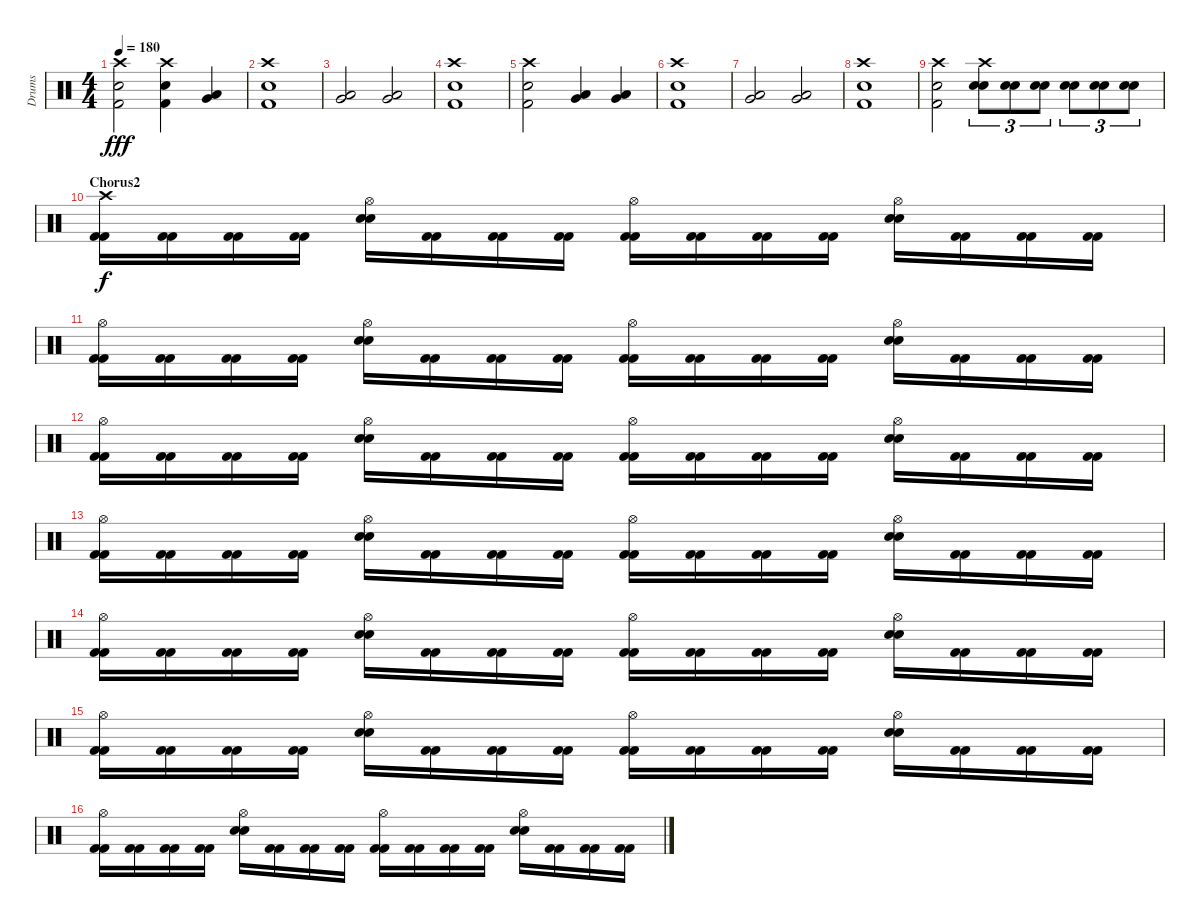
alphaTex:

\track ("Drums" "Drums") {instrument percussion}
\staff {score}
\articulation defaults
\ts (4 4)
\tempo 180
\clef neutral
\ks c
("Crash high (hit)" "Snare (hit) 2" "Kick (hit) 2").2{dy fff} ("Crash high (hit)" "Snare (hit) 2" "Kick (hit) 2").4 ("Low Tom (hit)" "Very Low Tom (hit)").4 |
("Crash high (hit)" "Snare (hit) 2" "Kick (hit) 2").1 |
("Low Tom (hit)" "Very Low Tom (hit)").2 ("Low Tom (hit)" "Very Low Tom (hit)").2 |
("Crash high (hit)" "Snare (hit) 2" "Kick (hit) 2").1 |
("Crash high (hit)" "Snare (hit) 2" "Kick (hit) 2").2 ("Low Tom (hit)" "Very Low Tom (hit)").4 ("Low Tom (hit)" "Very Low Tom (hit)").4 |
("Crash high (hit)" "Snare (hit) 2" "Kick (hit) 2").1 |
("Low Tom (hit)" "Very Low Tom (hit)").2 ("Low Tom (hit)" "Very Low Tom (hit)").2 |
("Crash high (hit)" "Snare (hit) 2" "Kick (hit) 2").1 |
("Crash high (hit)" "Snare (hit) 2" "Kick (hit) 2").2 ("Crash high (hit)" "Snare (hit) 2" "Snare (hit) 2").8{tu (3 2)} ("Snare (hit) 2" "Snare (hit) 2").8{tu (3 2)} ("Snare (hit) 2" "Snare (hit) 2").8{tu (3 2)} ("Snare (hit) 2" "Snare (hit) 2").8{tu (3 2)} ("Snare (hit) 2" "Snare (hit) 2").8{tu (3 2)} ("Snare (hit) 2" "Snare (hit) 2").8{tu (3 2)} |
\section ("" "Chorus2")
("Crash high (hit)" "Kick (hit) 2" "Kick (hit) 2").16{dy f} ("Kick (hit) 2" "Kick (hit) 2").16 ("Kick (hit) 2" "Kick (hit) 2").16 ("Kick (hit) 2" "Kick (hit) 2").16 ("Hi-Hat (open)" "Snare (hit) 2" "Snare (hit) 2").16 ("Kick (hit) 2" "Kick (hit) 2").16 ("Kick (hit) 2" "Kick (hit) 2").16 ("Kick (hit) 2" "Kick (hit) 2").16 ("Hi-Hat (open)" "Kick (hit) 2" "Kick (hit) 2").16 ("Kick (hit) 2" "Kick (hit) 2").16 ("Kick (hit) 2" "Kick (hit) 2").16 ("Kick (hit) 2" "Kick (hit) 2").16 ("Hi-Hat (open)" "Snare (hit) 2" "Snare (hit) 2").16 ("Kick (hit) 2" "Kick (hit) 2").16 ("Kick (hit) 2" "Kick (hit) 2").16 ("Kick (hit) 2" "Kick (hit) 2").16 |
("Hi-Hat (open)" "Kick (hit) 2" "Kick (hit) 2").16 ("Kick (hit) 2" "Kick (hit) 2").16 ("Kick (hit) 2" "Kick (hit) 2").16 ("Kick (hit) 2" "Kick (hit) 2").16 ("Hi-Hat (open)" "Snare (hit) 2" "Snare (hit) 2").16 ("Kick (hit) 2" "Kick (hit) 2").16 ("Kick (hit) 2" "Kick (hit) 2").16 ("Kick (hit) 2" "Kick (hit) 2").16 ("Hi-Hat (open)" "Kick (hit) 2" "Kick (hit) 2").16 ("Kick (hit) 2" "Kick (hit) 2").16 ("Kick (hit) 2" "Kick (hit) 2").16 ("Kick (hit) 2" "Kick (hit) 2").16 ("Hi-Hat (open)" "Snare (hit) 2" "Snare (hit) 2").16 ("Kick (hit) 2" "Kick (hit) 2").16 ("Kick (hit) 2" "Kick (hit) 2").16 ("Kick (hit) 2" "Kick (hit) 2").16 |
("Hi-Hat (open)" "Kick (hit) 2" "Kick (hit) 2").16 ("Kick (hit) 2" "Kick (hit) 2").16 ("Kick (hit) 2" "Kick (hit) 2").16 ("Kick (hit) 2" "Kick (hit) 2").16 ("Hi-Hat (open)" "Snare (hit) 2" "Snare (hit) 2").16 ("Kick (hit) 2" "Kick (hit) 2").16 ("Kick (hit) 2" "Kick (hit) 2").16 ("Kick (hit) 2" "Kick (hit) 2").16 ("Hi-Hat (open)" "Kick (hit) 2" "Kick (hit) 2").16 ("Kick (hit) 2" "Kick (hit) 2").16 ("Kick (hit) 2" "Kick (hit) 2").16 ("Kick (hit) 2" "Kick (hit) 2").16 ("Hi-Hat (open)" "Snare (hit) 2" "Snare (hit) 2").16 ("Kick (hit) 2" "Kick (hit) 2").16 ("Kick (hit) 2" "Kick (hit) 2").16 ("Kick (hit) 2" "Kick (hit) 2").16 |
("Hi-Hat (open)" "Kick (hit) 2" "Kick (hit) 2").16 ("Kick (hit) 2" "Kick (hit) 2").16 ("Kick (hit) 2" "Kick (hit) 2").16 ("Kick (hit) 2" "Kick (hit) 2").16 ("Hi-Hat (open)" "Snare (hit) 2" "Snare (hit) 2").16 ("Kick (hit) 2" "Kick (hit) 2").16 ("Kick (hit) 2" "Kick (hit) 2").16 ("Kick (hit) 2" "Kick (hit) 2").16 ("Hi-Hat (open)" "Kick (hit) 2" "Kick (hit) 2").16 ("Kick (hit) 2" "Kick (hit) 2").16 ("Kick (hit) 2" "Kick (hit) 2").16 ("Kick (hit) 2" "Kick (hit) 2").16 ("Hi-Hat (open)" "Snare (hit) 2" "Snare (hit) 2").16 ("Kick (hit) 2" "Kick (hit) 2").16 ("Kick (hit) 2" "Kick (hit) 2").16 ("Kick (hit) 2" "Kick (hit) 2").16 |
("Hi-Hat (open)" "Kick (hit) 2" "Kick (hit) 2").16 ("Kick (hit) 2" "Kick (hit) 2").16 ("Kick (hit) 2" "Kick (hit) 2").16 ("Kick (hit) 2" "Kick (hit) 2").16 ("Hi-Hat (open)" "Snare (hit) 2" "Snare (hit) 2").16 ("Kick (hit) 2" "Kick (hit) 2").16 ("Kick (hit) 2" "Kick (hit) 2").16 ("Kick (hit) 2" "Kick (hit) 2").16 ("Hi-Hat (open)" "Kick (hit) 2" "Kick (hit) 2").16 ("Kick (hit) 2" "Kick (hit) 2").16 ("Kick (hit) 2" "Kick (hit) 2").16 ("Kick (hit) 2" "Kick (hit) 2").16 ("Hi-Hat (open)" "Snare (hit) 2" "Snare (hit) 2").16 ("Kick (hit) 2" "Kick (hit) 2").16 ("Kick (hit) 2" "Kick (hit) 2").16 ("Kick (hit) 2" "Kick (hit) 2").16 |
("Hi-Hat (open)" "Kick (hit) 2" "Kick (hit) 2").16 ("Kick (hit) 2" "Kick (hit) 2").16 ("Kick (hit) 2" "Kick (hit) 2").16 ("Kick (hit) 2" "Kick (hit) 2").16 ("Hi-Hat (open)" "Snare (hit) 2" "Snare (hit) 2").16 ("Kick (hit) 2" "Kick (hit) 2").16 ("Kick (hit) 2" "Kick (hit) 2").16 ("Kick (hit) 2" "Kick (hit) 2").16 ("Hi-Hat (open)" "Kick (hit) 2" "Kick (hit) 2").16 ("Kick (hit) 2" "Kick (hit) 2").16 ("Kick (hit) 2" "Kick (hit) 2").16 ("Kick (hit) 2" "Kick (hit) 2").16 ("Hi-Hat (open)" "Snare (hit) 2" "Snare (hit) 2").16 ("Kick (hit) 2" "Kick (hit) 2").16 ("Kick (hit) 2" "Kick (hit) 2").16 ("Kick (hit) 2" "Kick (hit) 2").16 |
("Hi-Hat (open)" "Kick (hit) 2" "Kick (hit) 2").16 ("Kick (hit) 2" "Kick (hit) 2").16 ("Kick (hit) 2" "Kick (hit) 2").16 ("Kick (hit) 2" "Kick (hit) 2").16 ("Hi-Hat (open)" "Snare (hit) 2" "Snare (hit) 2").16 ("Kick (hit) 2" "Kick (hit) 2").16 ("Kick (hit) 2" "Kick (hit) 2").16 ("Kick (hit) 2" "Kick (hit) 2").16 ("Hi-Hat (open)" "Kick (hit) 2" "Kick (hit) 2").16 ("Kick (hit) 2" "Kick (hit) 2").16 ("Kick (hit) 2" "Kick (hit) 2").16 ("Kick (hit) 2" "Kick (hit) 2").16 ("Hi-Hat (open)" "Snare (hit) 2" "Snare (hit) 2").16 ("Kick (hit) 2" "Kick (hit) 2").16 ("Kick (hit) 2" "Kick (hit) 2").16 ("Kick (hit) 2" "Kick (hit) 2").16
